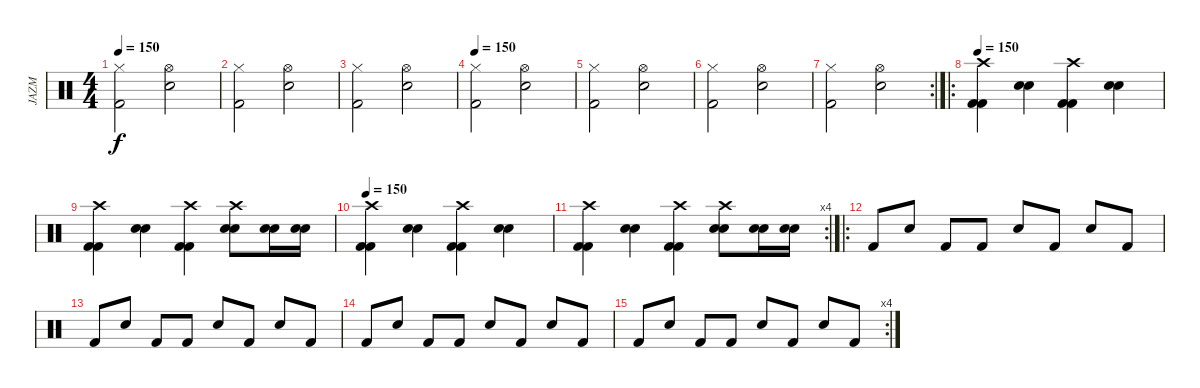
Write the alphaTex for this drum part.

\track ("JAZM" "JAZM") {instrument percussion}
\staff {score}
\articulation defaults
\ts (4 4)
\tempo 150
\clef neutral
\ks c
("Hi-Hat (closed)" "Kick (hit) 2").2{dy f} ("Hi-Hat (open)" "Electric Snare (hit)").2 |
("Hi-Hat (closed)" "Kick (hit) 2").2 ("Hi-Hat (open)" "Electric Snare (hit)").2 |
("Hi-Hat (closed)" "Kick (hit) 2").2 ("Hi-Hat (open)" "Electric Snare (hit)").2 |
\tempo 150
("Hi-Hat (closed)" "Kick (hit) 2").2 ("Hi-Hat (open)" "Electric Snare (hit)").2 |
("Hi-Hat (closed)" "Kick (hit) 2").2 ("Hi-Hat (open)" "Electric Snare (hit)").2 |
("Hi-Hat (closed)" "Kick (hit) 2").2 ("Hi-Hat (open)" "Electric Snare (hit)").2 |
\rc 2
("Hi-Hat (closed)" "Kick (hit) 2").2 ("Hi-Hat (open)" "Electric Snare (hit)").2 |
\ro
\tempo 150
("Crash high (hit)" "Kick (hit) 2" "Kick (hit) 2").4 ("Electric Snare (hit)" "Electric Snare (hit)").4 ("Crash high (hit)" "Kick (hit) 2" "Kick (hit) 2").4 ("Electric Snare (hit)" "Electric Snare (hit)").4 |
("Crash high (hit)" "Kick (hit) 2" "Kick (hit) 2").4 ("Electric Snare (hit)" "Electric Snare (hit)").4 ("Crash high (hit)" "Kick (hit) 2" "Kick (hit) 2").4 ("Crash high (hit)" "Electric Snare (hit)" "Electric Snare (hit)").8 ("Electric Snare (hit)" "Electric Snare (hit)").16 ("Electric Snare (hit)" "Electric Snare (hit)").16 |
\tempo 150
("Crash high (hit)" "Kick (hit) 2" "Kick (hit) 2").4 ("Electric Snare (hit)" "Electric Snare (hit)").4 ("Crash high (hit)" "Kick (hit) 2" "Kick (hit) 2").4 ("Electric Snare (hit)" "Electric Snare (hit)").4 |
\rc 4
("Crash high (hit)" "Kick (hit) 2" "Kick (hit) 2").4 ("Electric Snare (hit)" "Electric Snare (hit)").4 ("Crash high (hit)" "Kick (hit) 2" "Kick (hit) 2").4 ("Crash high (hit)" "Electric Snare (hit)" "Electric Snare (hit)").8 ("Electric Snare (hit)" "Electric Snare (hit)").16 ("Electric Snare (hit)" "Electric Snare (hit)").16 |
\ro "Kick (hit) 2".8 "Snare (hit) 2".8 "Kick (hit) 2".8 "Kick (hit) 2".8 "Snare (hit) 2".8 "Kick (hit) 2".8 "Snare (hit) 2".8 "Kick (hit) 2".8
|
"Kick (hit) 2".8 "Snare (hit) 2".8 "Kick (hit) 2".8 "Kick (hit) 2".8 "Snare (hit) 2".8 "Kick (hit) 2".8 "Snare (hit) 2".8 "Kick (hit) 2".8 |
"Kick (hit) 2".8 "Snare (hit) 2".8 "Kick (hit) 2".8 "Kick (hit) 2".8 "Snare (hit) 2".8 "Kick (hit) 2".8 "Snare (hit) 2".8 "Kick (hit) 2".8 |
\rc 4 "Kick (hit) 2".8 "Snare (hit) 2".8 "Kick (hit) 2".8 "Kick (hit) 2".8 "Snare (hit) 2".8 "Kick (hit) 2".8 "Snare (hit) 2".8 "Kick (hit) 2".8
